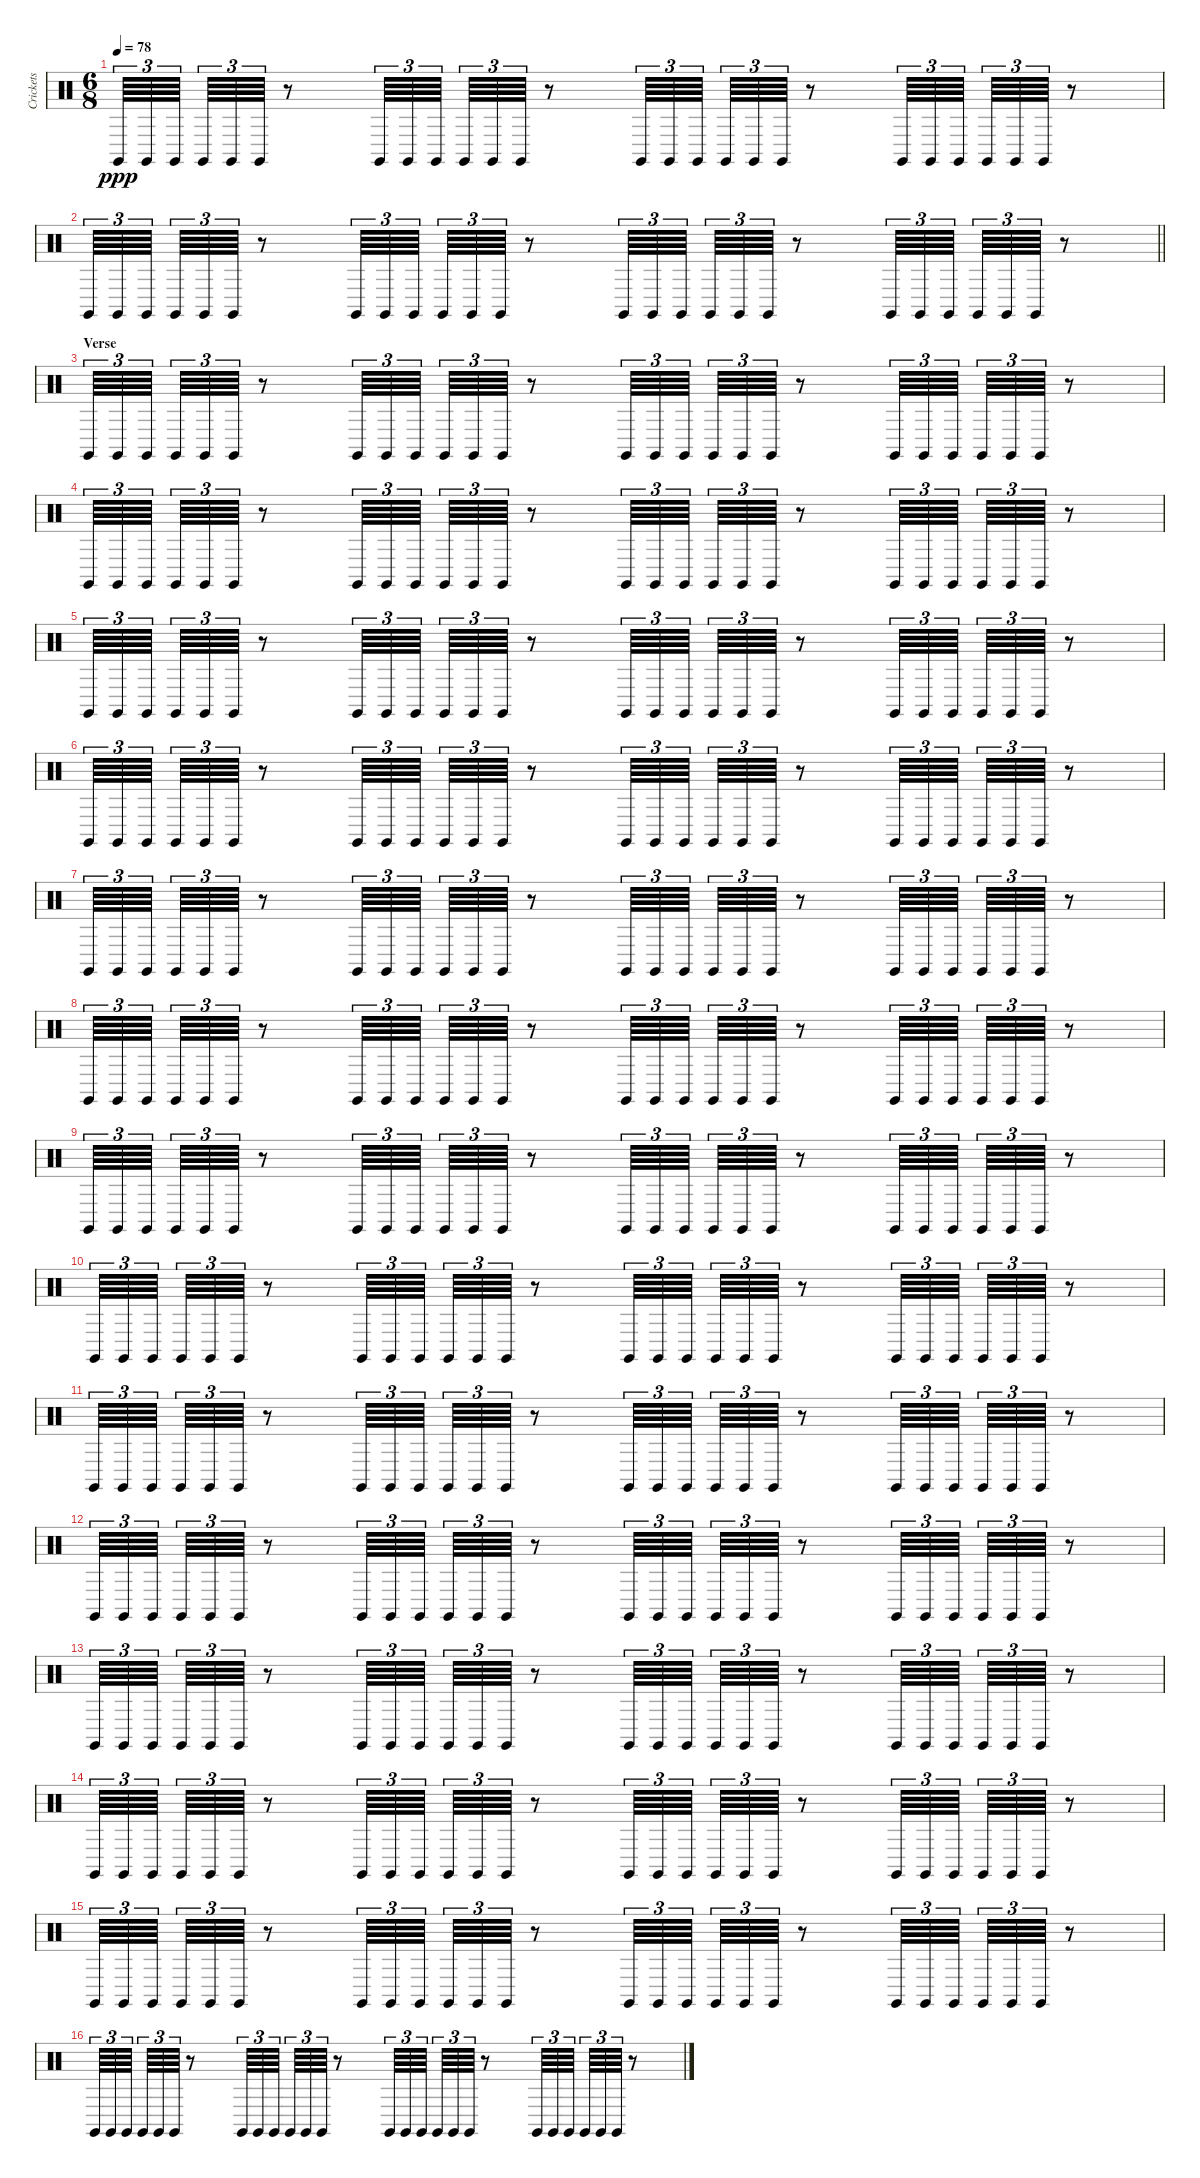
\track ("Crickets" "Crickets") {instrument percussion}
\staff {score}
\articulation defaults
\ts (6 8)
\tempo 78
\clef neutral
\ks c "Claves (hit)".64{tu (3 2) dy ppp} "Claves (hit)".64{tu (3 2)} "Claves (hit)".64{tu (3 2) beam splitsecondary} "Claves (hit)".64{tu (3 2)} "Claves (hit)".64{tu (3 2)} "Claves (hit)".64{tu (3 2)}
r.8 "Claves (hit)".64{tu (3 2)} "Claves (hit)".64{tu (3 2)} "Claves (hit)".64{tu (3 2) beam splitsecondary} "Claves (hit)".64{tu (3 2)} "Claves (hit)".64{tu (3 2)} "Claves (hit)".64{tu (3 2)} r.8 "Claves (hit)".64{tu (3 2)} "Claves (hit)".64{tu (3 2)} "Claves (hit)".64{tu (3 2) beam splitsecondary} "Claves (hit)".64{tu (3 2)} "Claves (hit)".64{tu (3 2)} "Claves (hit)".64{tu (3 2)} r.8 "Claves (hit)".64{tu (3 2)} "Claves (hit)".64{tu (3 2)} "Claves (hit)".64{tu (3 2) beam splitsecondary} "Claves (hit)".64{tu (3 2)} "Claves (hit)".64{tu (3 2)} "Claves (hit)".64{tu (3 2)} r.8 |
\barLineRight lightlight "Claves (hit)".64{tu (3 2)} "Claves (hit)".64{tu (3 2)} "Claves (hit)".64{tu (3 2) beam splitsecondary} "Claves (hit)".64{tu (3 2)} "Claves (hit)".64{tu (3 2)} "Claves (hit)".64{tu (3 2)}
r.8 "Claves (hit)".64{tu (3 2)} "Claves (hit)".64{tu (3 2)} "Claves (hit)".64{tu (3 2) beam splitsecondary} "Claves (hit)".64{tu (3 2)} "Claves (hit)".64{tu (3 2)} "Claves (hit)".64{tu (3 2)} r.8 "Claves (hit)".64{tu (3 2)} "Claves (hit)".64{tu (3 2)} "Claves (hit)".64{tu (3 2) beam splitsecondary} "Claves (hit)".64{tu (3 2)} "Claves (hit)".64{tu (3 2)} "Claves (hit)".64{tu (3 2)} r.8 "Claves (hit)".64{tu (3 2)} "Claves (hit)".64{tu (3 2)} "Claves (hit)".64{tu (3 2) beam splitsecondary} "Claves (hit)".64{tu (3 2)} "Claves (hit)".64{tu (3 2)} "Claves (hit)".64{tu (3 2)} r.8 |
\section ("" "Verse")
"Claves (hit)".64{tu (3 2)} "Claves (hit)".64{tu (3 2)} "Claves (hit)".64{tu (3 2) beam splitsecondary} "Claves (hit)".64{tu (3 2)} "Claves (hit)".64{tu (3 2)} "Claves (hit)".64{tu (3 2)} r.8 "Claves (hit)".64{tu (3 2)} "Claves (hit)".64{tu (3 2)} "Claves (hit)".64{tu (3 2) beam splitsecondary} "Claves (hit)".64{tu (3 2)} "Claves (hit)".64{tu (3 2)} "Claves (hit)".64{tu (3 2)} r.8 "Claves (hit)".64{tu (3 2)} "Claves (hit)".64{tu (3 2)} "Claves (hit)".64{tu (3 2) beam splitsecondary} "Claves (hit)".64{tu (3 2)} "Claves (hit)".64{tu (3 2)} "Claves (hit)".64{tu (3 2)} r.8 "Claves (hit)".64{tu (3 2)} "Claves (hit)".64{tu (3 2)} "Claves (hit)".64{tu (3 2) beam splitsecondary} "Claves (hit)".64{tu (3 2)} "Claves (hit)".64{tu (3 2)} "Claves (hit)".64{tu (3 2)} r.8 |
"Claves (hit)".64{tu (3 2)} "Claves (hit)".64{tu (3 2)} "Claves (hit)".64{tu (3 2) beam splitsecondary} "Claves (hit)".64{tu (3 2)} "Claves (hit)".64{tu (3 2)} "Claves (hit)".64{tu (3 2)} r.8 "Claves (hit)".64{tu (3 2)} "Claves (hit)".64{tu (3 2)} "Claves (hit)".64{tu (3 2) beam splitsecondary} "Claves (hit)".64{tu (3 2)} "Claves (hit)".64{tu (3 2)} "Claves (hit)".64{tu (3 2)} r.8 "Claves (hit)".64{tu (3 2)} "Claves (hit)".64{tu (3 2)} "Claves (hit)".64{tu (3 2) beam splitsecondary} "Claves (hit)".64{tu (3 2)} "Claves (hit)".64{tu (3 2)} "Claves (hit)".64{tu (3 2)} r.8 "Claves (hit)".64{tu (3 2)} "Claves (hit)".64{tu (3 2)} "Claves (hit)".64{tu (3 2) beam splitsecondary} "Claves (hit)".64{tu (3 2)} "Claves (hit)".64{tu (3 2)} "Claves (hit)".64{tu (3 2)} r.8 |
"Claves (hit)".64{tu (3 2)} "Claves (hit)".64{tu (3 2)} "Claves (hit)".64{tu (3 2) beam splitsecondary} "Claves (hit)".64{tu (3 2)} "Claves (hit)".64{tu (3 2)} "Claves (hit)".64{tu (3 2)} r.8 "Claves (hit)".64{tu (3 2)} "Claves (hit)".64{tu (3 2)} "Claves (hit)".64{tu (3 2) beam splitsecondary} "Claves (hit)".64{tu (3 2)} "Claves (hit)".64{tu (3 2)} "Claves (hit)".64{tu (3 2)} r.8 "Claves (hit)".64{tu (3 2)} "Claves (hit)".64{tu (3 2)} "Claves (hit)".64{tu (3 2) beam splitsecondary} "Claves (hit)".64{tu (3 2)} "Claves (hit)".64{tu (3 2)} "Claves (hit)".64{tu (3 2)} r.8 "Claves (hit)".64{tu (3 2)} "Claves (hit)".64{tu (3 2)} "Claves (hit)".64{tu (3 2) beam splitsecondary} "Claves (hit)".64{tu (3 2)} "Claves (hit)".64{tu (3 2)} "Claves (hit)".64{tu (3 2)} r.8 |
"Claves (hit)".64{tu (3 2)} "Claves (hit)".64{tu (3 2)} "Claves (hit)".64{tu (3 2) beam splitsecondary} "Claves (hit)".64{tu (3 2)} "Claves (hit)".64{tu (3 2)} "Claves (hit)".64{tu (3 2)} r.8 "Claves (hit)".64{tu (3 2)} "Claves (hit)".64{tu (3 2)} "Claves (hit)".64{tu (3 2) beam splitsecondary} "Claves (hit)".64{tu (3 2)} "Claves (hit)".64{tu (3 2)} "Claves (hit)".64{tu (3 2)} r.8 "Claves (hit)".64{tu (3 2)} "Claves (hit)".64{tu (3 2)} "Claves (hit)".64{tu (3 2) beam splitsecondary} "Claves (hit)".64{tu (3 2)} "Claves (hit)".64{tu (3 2)} "Claves (hit)".64{tu (3 2)} r.8 "Claves (hit)".64{tu (3 2)} "Claves (hit)".64{tu (3 2)} "Claves (hit)".64{tu (3 2) beam splitsecondary} "Claves (hit)".64{tu (3 2)} "Claves (hit)".64{tu (3 2)} "Claves (hit)".64{tu (3 2)} r.8 |
"Claves (hit)".64{tu (3 2)} "Claves (hit)".64{tu (3 2)} "Claves (hit)".64{tu (3 2) beam splitsecondary} "Claves (hit)".64{tu (3 2)} "Claves (hit)".64{tu (3 2)} "Claves (hit)".64{tu (3 2)} r.8 "Claves (hit)".64{tu (3 2)} "Claves (hit)".64{tu (3 2)} "Claves (hit)".64{tu (3 2) beam splitsecondary} "Claves (hit)".64{tu (3 2)} "Claves (hit)".64{tu (3 2)} "Claves (hit)".64{tu (3 2)} r.8 "Claves (hit)".64{tu (3 2)} "Claves (hit)".64{tu (3 2)} "Claves (hit)".64{tu (3 2) beam splitsecondary} "Claves (hit)".64{tu (3 2)} "Claves (hit)".64{tu (3 2)} "Claves (hit)".64{tu (3 2)} r.8 "Claves (hit)".64{tu (3 2)} "Claves (hit)".64{tu (3 2)} "Claves (hit)".64{tu (3 2) beam splitsecondary} "Claves (hit)".64{tu (3 2)} "Claves (hit)".64{tu (3 2)} "Claves (hit)".64{tu (3 2)} r.8 |
"Claves (hit)".64{tu (3 2)} "Claves (hit)".64{tu (3 2)} "Claves (hit)".64{tu (3 2) beam splitsecondary} "Claves (hit)".64{tu (3 2)} "Claves (hit)".64{tu (3 2)} "Claves (hit)".64{tu (3 2)} r.8 "Claves (hit)".64{tu (3 2)} "Claves (hit)".64{tu (3 2)} "Claves (hit)".64{tu (3 2) beam splitsecondary} "Claves (hit)".64{tu (3 2)} "Claves (hit)".64{tu (3 2)} "Claves (hit)".64{tu (3 2)} r.8 "Claves (hit)".64{tu (3 2)} "Claves (hit)".64{tu (3 2)} "Claves (hit)".64{tu (3 2) beam splitsecondary} "Claves (hit)".64{tu (3 2)} "Claves (hit)".64{tu (3 2)} "Claves (hit)".64{tu (3 2)} r.8 "Claves (hit)".64{tu (3 2)} "Claves (hit)".64{tu (3 2)} "Claves (hit)".64{tu (3 2) beam splitsecondary} "Claves (hit)".64{tu (3 2)} "Claves (hit)".64{tu (3 2)} "Claves (hit)".64{tu (3 2)} r.8 |
"Claves (hit)".64{tu (3 2)} "Claves (hit)".64{tu (3 2)} "Claves (hit)".64{tu (3 2) beam splitsecondary} "Claves (hit)".64{tu (3 2)} "Claves (hit)".64{tu (3 2)} "Claves (hit)".64{tu (3 2)} r.8 "Claves (hit)".64{tu (3 2)} "Claves (hit)".64{tu (3 2)} "Claves (hit)".64{tu (3 2) beam splitsecondary} "Claves (hit)".64{tu (3 2)} "Claves (hit)".64{tu (3 2)} "Claves (hit)".64{tu (3 2)} r.8 "Claves (hit)".64{tu (3 2)} "Claves (hit)".64{tu (3 2)} "Claves (hit)".64{tu (3 2) beam splitsecondary} "Claves (hit)".64{tu (3 2)} "Claves (hit)".64{tu (3 2)} "Claves (hit)".64{tu (3 2)} r.8 "Claves (hit)".64{tu (3 2)} "Claves (hit)".64{tu (3 2)} "Claves (hit)".64{tu (3 2) beam splitsecondary} "Claves (hit)".64{tu (3 2)} "Claves (hit)".64{tu (3 2)} "Claves (hit)".64{tu (3 2)} r.8 |
"Claves (hit)".64{tu (3 2)} "Claves (hit)".64{tu (3 2)} "Claves (hit)".64{tu (3 2) beam splitsecondary} "Claves (hit)".64{tu (3 2)} "Claves (hit)".64{tu (3 2)} "Claves (hit)".64{tu (3 2)} r.8 "Claves (hit)".64{tu (3 2)} "Claves (hit)".64{tu (3 2)} "Claves (hit)".64{tu (3 2) beam splitsecondary} "Claves (hit)".64{tu (3 2)} "Claves (hit)".64{tu (3 2)} "Claves (hit)".64{tu (3 2)} r.8 "Claves (hit)".64{tu (3 2)} "Claves (hit)".64{tu (3 2)} "Claves (hit)".64{tu (3 2) beam splitsecondary} "Claves (hit)".64{tu (3 2)} "Claves (hit)".64{tu (3 2)} "Claves (hit)".64{tu (3 2)} r.8 "Claves (hit)".64{tu (3 2)} "Claves (hit)".64{tu (3 2)} "Claves (hit)".64{tu (3 2) beam splitsecondary} "Claves (hit)".64{tu (3 2)} "Claves (hit)".64{tu (3 2)} "Claves (hit)".64{tu (3 2)} r.8 |
"Claves (hit)".64{tu (3 2)} "Claves (hit)".64{tu (3 2)} "Claves (hit)".64{tu (3 2) beam splitsecondary} "Claves (hit)".64{tu (3 2)} "Claves (hit)".64{tu (3 2)} "Claves (hit)".64{tu (3 2)} r.8 "Claves (hit)".64{tu (3 2)} "Claves (hit)".64{tu (3 2)} "Claves (hit)".64{tu (3 2) beam splitsecondary} "Claves (hit)".64{tu (3 2)} "Claves (hit)".64{tu (3 2)} "Claves (hit)".64{tu (3 2)} r.8 "Claves (hit)".64{tu (3 2)} "Claves (hit)".64{tu (3 2)} "Claves (hit)".64{tu (3 2) beam splitsecondary} "Claves (hit)".64{tu (3 2)} "Claves (hit)".64{tu (3 2)} "Claves (hit)".64{tu (3 2)} r.8 "Claves (hit)".64{tu (3 2)} "Claves (hit)".64{tu (3 2)} "Claves (hit)".64{tu (3 2) beam splitsecondary} "Claves (hit)".64{tu (3 2)} "Claves (hit)".64{tu (3 2)} "Claves (hit)".64{tu (3 2)} r.8 |
"Claves (hit)".64{tu (3 2)} "Claves (hit)".64{tu (3 2)} "Claves (hit)".64{tu (3 2) beam splitsecondary} "Claves (hit)".64{tu (3 2)} "Claves (hit)".64{tu (3 2)} "Claves (hit)".64{tu (3 2)} r.8 "Claves (hit)".64{tu (3 2)} "Claves (hit)".64{tu (3 2)} "Claves (hit)".64{tu (3 2) beam splitsecondary} "Claves (hit)".64{tu (3 2)} "Claves (hit)".64{tu (3 2)} "Claves (hit)".64{tu (3 2)} r.8 "Claves (hit)".64{tu (3 2)} "Claves (hit)".64{tu (3 2)} "Claves (hit)".64{tu (3 2) beam splitsecondary} "Claves (hit)".64{tu (3 2)} "Claves (hit)".64{tu (3 2)} "Claves (hit)".64{tu (3 2)} r.8 "Claves (hit)".64{tu (3 2)} "Claves (hit)".64{tu (3 2)} "Claves (hit)".64{tu (3 2) beam splitsecondary} "Claves (hit)".64{tu (3 2)} "Claves (hit)".64{tu (3 2)} "Claves (hit)".64{tu (3 2)} r.8 |
"Claves (hit)".64{tu (3 2)} "Claves (hit)".64{tu (3 2)} "Claves (hit)".64{tu (3 2) beam splitsecondary} "Claves (hit)".64{tu (3 2)} "Claves (hit)".64{tu (3 2)} "Claves (hit)".64{tu (3 2)} r.8 "Claves (hit)".64{tu (3 2)} "Claves (hit)".64{tu (3 2)} "Claves (hit)".64{tu (3 2) beam splitsecondary} "Claves (hit)".64{tu (3 2)} "Claves (hit)".64{tu (3 2)} "Claves (hit)".64{tu (3 2)} r.8 "Claves (hit)".64{tu (3 2)} "Claves (hit)".64{tu (3 2)} "Claves (hit)".64{tu (3 2) beam splitsecondary} "Claves (hit)".64{tu (3 2)} "Claves (hit)".64{tu (3 2)} "Claves (hit)".64{tu (3 2)} r.8 "Claves (hit)".64{tu (3 2)} "Claves (hit)".64{tu (3 2)} "Claves (hit)".64{tu (3 2) beam splitsecondary} "Claves (hit)".64{tu (3 2)} "Claves (hit)".64{tu (3 2)} "Claves (hit)".64{tu (3 2)} r.8 |
"Claves (hit)".64{tu (3 2)} "Claves (hit)".64{tu (3 2)} "Claves (hit)".64{tu (3 2) beam splitsecondary} "Claves (hit)".64{tu (3 2)} "Claves (hit)".64{tu (3 2)} "Claves (hit)".64{tu (3 2)} r.8 "Claves (hit)".64{tu (3 2)} "Claves (hit)".64{tu (3 2)} "Claves (hit)".64{tu (3 2) beam splitsecondary} "Claves (hit)".64{tu (3 2)} "Claves (hit)".64{tu (3 2)} "Claves (hit)".64{tu (3 2)} r.8 "Claves (hit)".64{tu (3 2)} "Claves (hit)".64{tu (3 2)} "Claves (hit)".64{tu (3 2) beam splitsecondary} "Claves (hit)".64{tu (3 2)} "Claves (hit)".64{tu (3 2)} "Claves (hit)".64{tu (3 2)} r.8 "Claves (hit)".64{tu (3 2)} "Claves (hit)".64{tu (3 2)} "Claves (hit)".64{tu (3 2) beam splitsecondary} "Claves (hit)".64{tu (3 2)} "Claves (hit)".64{tu (3 2)} "Claves (hit)".64{tu (3 2)} r.8 |
"Claves (hit)".64{tu (3 2)} "Claves (hit)".64{tu (3 2)} "Claves (hit)".64{tu (3 2) beam splitsecondary} "Claves (hit)".64{tu (3 2)} "Claves (hit)".64{tu (3 2)} "Claves (hit)".64{tu (3 2)} r.8 "Claves (hit)".64{tu (3 2)} "Claves (hit)".64{tu (3 2)} "Claves (hit)".64{tu (3 2) beam splitsecondary} "Claves (hit)".64{tu (3 2)} "Claves (hit)".64{tu (3 2)} "Claves (hit)".64{tu (3 2)} r.8 "Claves (hit)".64{tu (3 2)} "Claves (hit)".64{tu (3 2)} "Claves (hit)".64{tu (3 2) beam splitsecondary} "Claves (hit)".64{tu (3 2)} "Claves (hit)".64{tu (3 2)} "Claves (hit)".64{tu (3 2)} r.8 "Claves (hit)".64{tu (3 2)} "Claves (hit)".64{tu (3 2)} "Claves (hit)".64{tu (3 2) beam splitsecondary} "Claves (hit)".64{tu (3 2)} "Claves (hit)".64{tu (3 2)} "Claves (hit)".64{tu (3 2)} r.8 |
"Claves (hit)".64{tu (3 2)} "Claves (hit)".64{tu (3 2)} "Claves (hit)".64{tu (3 2) beam splitsecondary} "Claves (hit)".64{tu (3 2)} "Claves (hit)".64{tu (3 2)} "Claves (hit)".64{tu (3 2)} r.8 "Claves (hit)".64{tu (3 2)} "Claves (hit)".64{tu (3 2)} "Claves (hit)".64{tu (3 2) beam splitsecondary} "Claves (hit)".64{tu (3 2)} "Claves (hit)".64{tu (3 2)} "Claves (hit)".64{tu (3 2)} r.8 "Claves (hit)".64{tu (3 2)} "Claves (hit)".64{tu (3 2)} "Claves (hit)".64{tu (3 2) beam splitsecondary} "Claves (hit)".64{tu (3 2)} "Claves (hit)".64{tu (3 2)} "Claves (hit)".64{tu (3 2)} r.8 "Claves (hit)".64{tu (3 2)} "Claves (hit)".64{tu (3 2)} "Claves (hit)".64{tu (3 2) beam splitsecondary} "Claves (hit)".64{tu (3 2)} "Claves (hit)".64{tu (3 2)} "Claves (hit)".64{tu (3 2)} r.8
